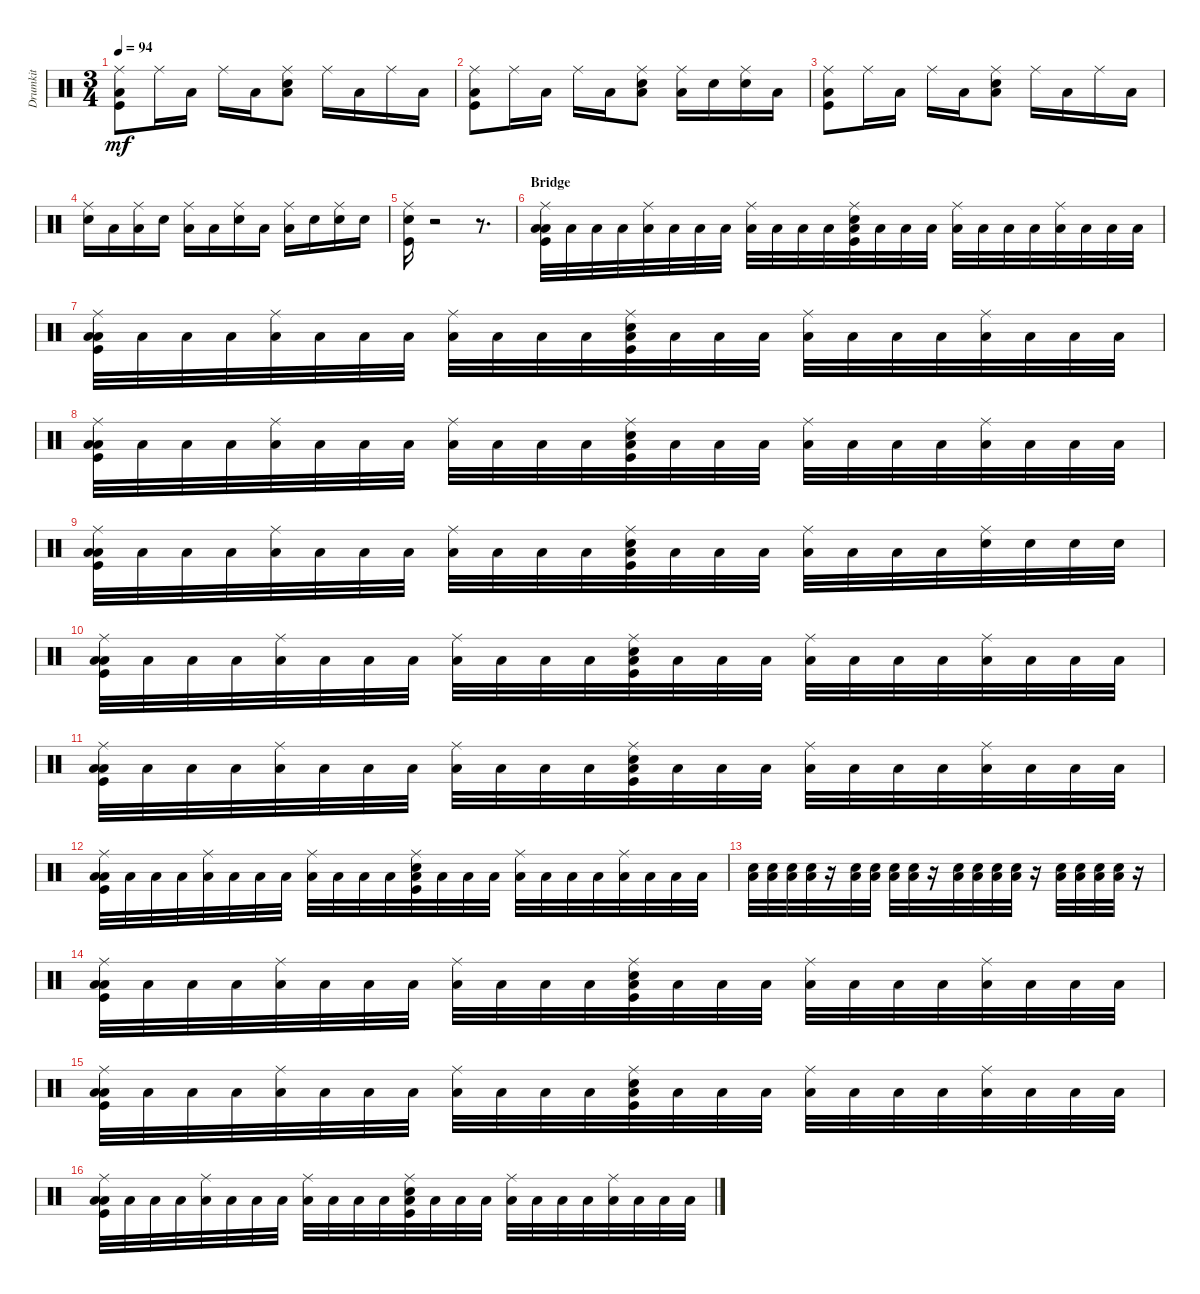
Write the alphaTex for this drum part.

\track ("Drumkit" "Drumkit") {instrument percussion}
\staff {score}
\articulation defaults
\ts (3 4)
\tempo 94
\clef neutral
\ks c
("Ride (middle)" "Kick (hit)" "Low Tom (hit)").8{dy mf} "Ride (middle)".16 "Low Tom (hit)".16 "Ride (middle)".16 "Low Tom (hit)".16 ("Ride (middle)" "Snare (hit) 2" "Low Floor Tom (hit)").8 "Ride (middle)".16 "Low Tom (hit)".16 "Ride (middle)".16 "Low Tom (hit)".16 |
("Ride (middle)" "Kick (hit)" "Low Tom (hit)").8 "Ride (middle)".16 "Low Tom (hit)".16 "Ride (middle)".16 "Low Tom (hit)".16 ("Ride (middle)" "Snare (hit) 2" "Low Floor Tom (hit)").8 ("Ride (middle)" "Low Tom (hit)").16 "Snare (hit) 2".16 ("Ride (middle)" "Snare (hit) 2").16 "Low Tom (hit)".16 |
("Ride (middle)" "Kick (hit)" "Low Tom (hit)").8 "Ride (middle)".16 "Low Tom (hit)".16 "Ride (middle)".16 "Low Tom (hit)".16 ("Ride (middle)" "Snare (hit) 2" "Low Floor Tom (hit)").8 "Ride (middle)".16 "Low Tom (hit)".16 "Ride (middle)".16 "Low Tom (hit)".16 |
("Snare (hit) 2" "Ride (middle)").16 "Low Tom (hit)".16 ("Low Tom (hit)" "Ride (middle)").16 "Snare (hit) 2".16 ("Low Tom (hit)" "Ride (middle)").16 "Low Tom (hit)".16 ("Snare (hit) 2" "Ride (middle)").16 "Low Tom (hit)".16 ("Low Tom (hit)" "Ride (middle)").16 "Snare (hit) 2".16 ("Ride (middle)" "Snare (hit) 2").16 "Snare (hit) 2".16 |
("Kick (hit)" "Snare (hit) 2" "Ride (middle)").16 r.2 r.8{d} |
\section ("" "Bridge")
("Low Tom (hit)" "Ride (middle)" "Kick (hit)" "Low Floor Tom (hit)").32 "Low Tom (hit)".32 "Low Tom (hit)".32 "Low Tom (hit)".32 ("Low Tom (hit)" "Ride (middle)").32 "Low Tom (hit)".32 "Low Tom (hit)".32 "Low Tom (hit)".32 ("Low Tom (hit)" "Ride (middle)").32 "Low Tom (hit)".32 "Low Tom (hit)".32 "Low Tom (hit)".32 ("Ride (middle)" "Kick (hit)" "Snare (hit) 2" "Low Tom (hit)").32 "Low Tom (hit)".32 "Low Tom (hit)".32 "Low Tom (hit)".32 ("Low Tom (hit)" "Ride (middle)").32 "Low Tom (hit)".32 "Low Tom (hit)".32 "Low Tom (hit)".32 ("Low Tom (hit)" "Ride (middle)").32 "Low Tom (hit)".32 "Low Tom (hit)".32 "Low Tom (hit)".32 |
("Low Tom (hit)" "Ride (middle)" "Kick (hit)" "Low Floor Tom (hit)").32 "Low Tom (hit)".32 "Low Tom (hit)".32 "Low Tom (hit)".32 ("Low Tom (hit)" "Ride (middle)").32 "Low Tom (hit)".32 "Low Tom (hit)".32 "Low Tom (hit)".32 ("Low Tom (hit)" "Ride (middle)").32 "Low Tom (hit)".32 "Low Tom (hit)".32 "Low Tom (hit)".32 ("Ride (middle)" "Kick (hit)" "Snare (hit) 2" "Low Tom (hit)").32 "Low Tom (hit)".32 "Low Tom (hit)".32 "Low Tom (hit)".32 ("Low Tom (hit)" "Ride (middle)").32 "Low Tom (hit)".32 "Low Tom (hit)".32 "Low Tom (hit)".32 ("Low Tom (hit)" "Ride (middle)").32 "Low Tom (hit)".32 "Low Tom (hit)".32 "Low Tom (hit)".32 |
("Low Tom (hit)" "Ride (middle)" "Kick (hit)" "Low Floor Tom (hit)").32 "Low Tom (hit)".32 "Low Tom (hit)".32 "Low Tom (hit)".32 ("Low Tom (hit)" "Ride (middle)").32 "Low Tom (hit)".32 "Low Tom (hit)".32 "Low Tom (hit)".32 ("Low Tom (hit)" "Ride (middle)").32 "Low Tom (hit)".32 "Low Tom (hit)".32 "Low Tom (hit)".32 ("Ride (middle)" "Kick (hit)" "Snare (hit) 2" "Low Tom (hit)").32 "Low Tom (hit)".32 "Low Tom (hit)".32 "Low Tom (hit)".32 ("Low Tom (hit)" "Ride (middle)").32 "Low Tom (hit)".32 "Low Tom (hit)".32 "Low Tom (hit)".32 ("Low Tom (hit)" "Ride (middle)").32 "Low Tom (hit)".32 "Low Tom (hit)".32 "Low Tom (hit)".32 |
("Low Tom (hit)" "Ride (middle)" "Kick (hit)" "Low Floor Tom (hit)").32 "Low Tom (hit)".32 "Low Tom (hit)".32 "Low Tom (hit)".32 ("Low Tom (hit)" "Ride (middle)").32 "Low Tom (hit)".32 "Low Tom (hit)".32 "Low Tom (hit)".32 ("Low Tom (hit)" "Ride (middle)").32 "Low Tom (hit)".32 "Low Tom (hit)".32 "Low Tom (hit)".32 ("Ride (middle)" "Kick (hit)" "Snare (hit) 2" "Low Tom (hit)").32 "Low Tom (hit)".32 "Low Tom (hit)".32 "Low Tom (hit)".32 ("Low Tom (hit)" "Ride (middle)").32 "Low Tom (hit)".32 "Low Tom (hit)".32 "Low Tom (hit)".32 ("Ride (middle)" "Snare (hit) 2").32 "Snare (hit) 2".32 "Snare (hit) 2".32 "Snare (hit) 2".32 |
("Low Tom (hit)" "Ride (middle)" "Kick (hit)" "Low Floor Tom (hit)").32 "Low Tom (hit)".32 "Low Tom (hit)".32 "Low Tom (hit)".32 ("Low Tom (hit)" "Ride (middle)").32 "Low Tom (hit)".32 "Low Tom (hit)".32 "Low Tom (hit)".32 ("Low Tom (hit)" "Ride (middle)").32 "Low Tom (hit)".32 "Low Tom (hit)".32 "Low Tom (hit)".32 ("Ride (middle)" "Kick (hit)" "Snare (hit) 2" "Low Tom (hit)").32 "Low Tom (hit)".32 "Low Tom (hit)".32 "Low Tom (hit)".32 ("Low Tom (hit)" "Ride (middle)").32 "Low Tom (hit)".32 "Low Tom (hit)".32 "Low Tom (hit)".32 ("Low Tom (hit)" "Ride (middle)").32 "Low Tom (hit)".32 "Low Tom (hit)".32 "Low Tom (hit)".32 |
("Low Tom (hit)" "Ride (middle)" "Kick (hit)" "Low Floor Tom (hit)").32 "Low Tom (hit)".32 "Low Tom (hit)".32 "Low Tom (hit)".32 ("Low Tom (hit)" "Ride (middle)").32 "Low Tom (hit)".32 "Low Tom (hit)".32 "Low Tom (hit)".32 ("Low Tom (hit)" "Ride (middle)").32 "Low Tom (hit)".32 "Low Tom (hit)".32 "Low Tom (hit)".32 ("Ride (middle)" "Kick (hit)" "Snare (hit) 2" "Low Tom (hit)").32 "Low Tom (hit)".32 "Low Tom (hit)".32 "Low Tom (hit)".32 ("Low Tom (hit)" "Ride (middle)").32 "Low Tom (hit)".32 "Low Tom (hit)".32 "Low Tom (hit)".32 ("Low Tom (hit)" "Ride (middle)").32 "Low Tom (hit)".32 "Low Tom (hit)".32 "Low Tom (hit)".32 |
("Low Tom (hit)" "Ride (middle)" "Kick (hit)" "Low Floor Tom (hit)").32 "Low Tom (hit)".32 "Low Tom (hit)".32 "Low Tom (hit)".32 ("Low Tom (hit)" "Ride (middle)").32 "Low Tom (hit)".32 "Low Tom (hit)".32 "Low Tom (hit)".32 ("Low Tom (hit)" "Ride (middle)").32 "Low Tom (hit)".32 "Low Tom (hit)".32 "Low Tom (hit)".32 ("Ride (middle)" "Kick (hit)" "Snare (hit) 2" "Low Tom (hit)").32 "Low Tom (hit)".32 "Low Tom (hit)".32 "Low Tom (hit)".32 ("Low Tom (hit)" "Ride (middle)").32 "Low Tom (hit)".32 "Low Tom (hit)".32 "Low Tom (hit)".32 ("Low Tom (hit)" "Ride (middle)").32 "Low Tom (hit)".32 "Low Tom (hit)".32 "Low Tom (hit)".32 |
("Snare (hit) 2" "Low Tom (hit)").32 ("Snare (hit) 2" "Low Tom (hit)").32 ("Snare (hit) 2" "Low Tom (hit)").32 ("Snare (hit) 2" "Low Tom (hit)").32 r.16 ("Snare (hit) 2" "Low Tom (hit)").32 ("Snare (hit) 2" "Low Tom (hit)").32 ("Snare (hit) 2" "Low Tom (hit)").32 ("Snare (hit) 2" "Low Tom (hit)").32 r.16 ("Snare (hit) 2" "Low Tom (hit)").32 ("Snare (hit) 2" "Low Tom (hit)").32 ("Snare (hit) 2" "Low Tom (hit)").32 ("Snare (hit) 2" "Low Tom (hit)").32 r.16 ("Snare (hit) 2" "Low Tom (hit)").32 ("Snare (hit) 2" "Low Tom (hit)").32 ("Snare (hit) 2" "Low Tom (hit)").32 ("Snare (hit) 2" "Low Tom (hit)").32 r.16 |
("Low Tom (hit)" "Ride (middle)" "Kick (hit)" "Low Floor Tom (hit)").32 "Low Tom (hit)".32 "Low Tom (hit)".32 "Low Tom (hit)".32 ("Low Tom (hit)" "Ride (middle)").32 "Low Tom (hit)".32 "Low Tom (hit)".32 "Low Tom (hit)".32 ("Low Tom (hit)" "Ride (middle)").32 "Low Tom (hit)".32 "Low Tom (hit)".32 "Low Tom (hit)".32 ("Ride (middle)" "Kick (hit)" "Snare (hit) 2" "Low Tom (hit)").32 "Low Tom (hit)".32 "Low Tom (hit)".32 "Low Tom (hit)".32 ("Low Tom (hit)" "Ride (middle)").32 "Low Tom (hit)".32 "Low Tom (hit)".32 "Low Tom (hit)".32 ("Low Tom (hit)" "Ride (middle)").32 "Low Tom (hit)".32 "Low Tom (hit)".32 "Low Tom (hit)".32 |
("Low Tom (hit)" "Ride (middle)" "Kick (hit)" "Low Floor Tom (hit)").32 "Low Tom (hit)".32 "Low Tom (hit)".32 "Low Tom (hit)".32 ("Low Tom (hit)" "Ride (middle)").32 "Low Tom (hit)".32 "Low Tom (hit)".32 "Low Tom (hit)".32 ("Low Tom (hit)" "Ride (middle)").32 "Low Tom (hit)".32 "Low Tom (hit)".32 "Low Tom (hit)".32 ("Ride (middle)" "Kick (hit)" "Snare (hit) 2" "Low Tom (hit)").32 "Low Tom (hit)".32 "Low Tom (hit)".32 "Low Tom (hit)".32 ("Low Tom (hit)" "Ride (middle)").32 "Low Tom (hit)".32 "Low Tom (hit)".32 "Low Tom (hit)".32 ("Low Tom (hit)" "Ride (middle)").32 "Low Tom (hit)".32 "Low Tom (hit)".32 "Low Tom (hit)".32 |
("Low Tom (hit)" "Ride (middle)" "Kick (hit)" "Low Floor Tom (hit)").32 "Low Tom (hit)".32 "Low Tom (hit)".32 "Low Tom (hit)".32 ("Low Tom (hit)" "Ride (middle)").32 "Low Tom (hit)".32 "Low Tom (hit)".32 "Low Tom (hit)".32 ("Low Tom (hit)" "Ride (middle)").32 "Low Tom (hit)".32 "Low Tom (hit)".32 "Low Tom (hit)".32 ("Ride (middle)" "Kick (hit)" "Snare (hit) 2" "Low Tom (hit)").32 "Low Tom (hit)".32 "Low Tom (hit)".32 "Low Tom (hit)".32 ("Low Tom (hit)" "Ride (middle)").32 "Low Tom (hit)".32 "Low Tom (hit)".32 "Low Tom (hit)".32 ("Low Tom (hit)" "Ride (middle)").32 "Low Tom (hit)".32 "Low Tom (hit)".32 "Low Tom (hit)".32
